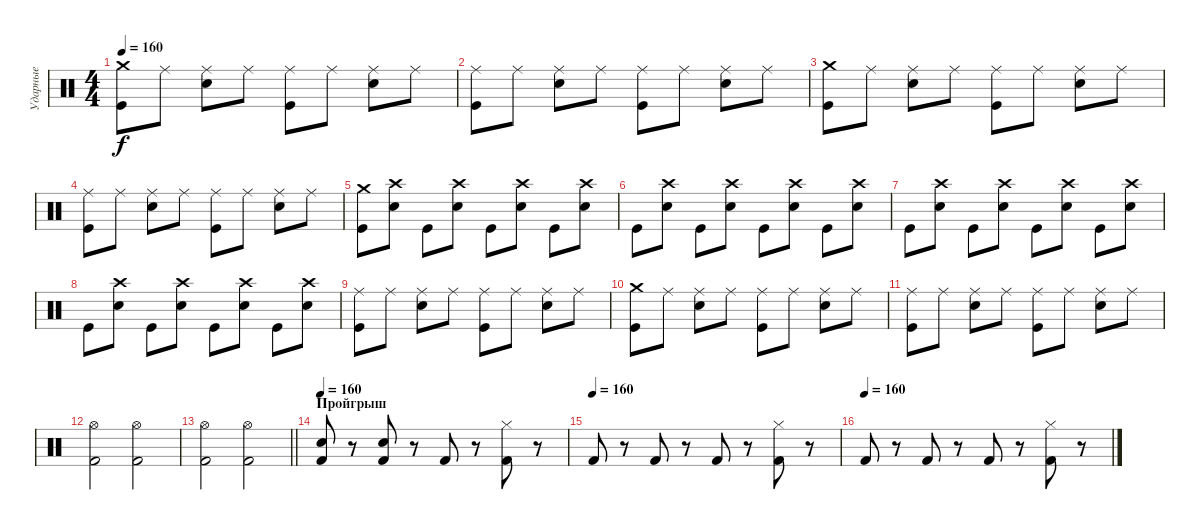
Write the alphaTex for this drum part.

\track ("Ударные" "Ударные") {instrument percussion}
\staff {score}
\articulation defaults
\ts (4 4)
\tempo 160
\clef neutral
\ks c
("Crash medium (hit)" "Kick (hit)").8{dy f} "Ride (middle)".8 ("Ride (middle)" "Electric Snare (hit)").8 "Ride (middle)".8 ("Ride (middle)" "Kick (hit)").8 "Ride (middle)".8 ("Ride (middle)" "Electric Snare (hit)").8 "Ride (middle)".8 |
("Ride (middle)" "Kick (hit)").8 "Ride (middle)".8 ("Ride (middle)" "Electric Snare (hit)").8 "Ride (middle)".8 ("Ride (middle)" "Kick (hit)").8 "Ride (middle)".8 ("Ride (middle)" "Electric Snare (hit)").8 "Ride (middle)".8 |
("Crash medium (hit)" "Kick (hit)").8 "Ride (middle)".8 ("Ride (middle)" "Electric Snare (hit)").8 "Ride (middle)".8 ("Ride (middle)" "Kick (hit)").8 "Ride (middle)".8 ("Ride (middle)" "Electric Snare (hit)").8 "Ride (middle)".8 |
("Ride (middle)" "Kick (hit)").8 "Ride (middle)".8 ("Ride (middle)" "Electric Snare (hit)").8 "Ride (middle)".8 ("Ride (middle)" "Kick (hit)").8 "Ride (middle)".8 ("Ride (middle)" "Electric Snare (hit)").8 "Ride (middle)".8 |
("Crash medium (hit)" "Kick (hit)").8 ("Crash high (hit)" "Snare (hit) 2").8 "Kick (hit)".8 ("Crash high (hit)" "Snare (hit) 2").8 "Kick (hit)".8 ("Crash high (hit)" "Snare (hit) 2").8 "Kick (hit)".8 ("Crash high (hit)" "Snare (hit) 2").8 |
"Kick (hit)".8 ("Crash high (hit)" "Snare (hit) 2").8 "Kick (hit)".8 ("Crash high (hit)" "Snare (hit) 2").8 "Kick (hit)".8 ("Crash high (hit)" "Snare (hit) 2").8 "Kick (hit)".8 ("Crash high (hit)" "Snare (hit) 2").8 |
"Kick (hit)".8 ("Crash high (hit)" "Snare (hit) 2").8 "Kick (hit)".8 ("Crash high (hit)" "Snare (hit) 2").8 "Kick (hit)".8 ("Crash high (hit)" "Snare (hit) 2").8 "Kick (hit)".8 ("Crash high (hit)" "Snare (hit) 2").8 |
"Kick (hit)".8 ("Crash high (hit)" "Snare (hit) 2").8 "Kick (hit)".8 ("Crash high (hit)" "Snare (hit) 2").8 "Kick (hit)".8 ("Crash high (hit)" "Snare (hit) 2").8 "Kick (hit)".8 ("Crash high (hit)" "Snare (hit) 2").8 |
("Ride (middle)" "Kick (hit)").8 "Ride (middle)".8 ("Ride (middle)" "Electric Snare (hit)").8 "Ride (middle)".8 ("Ride (middle)" "Kick (hit)").8 "Ride (middle)".8 ("Ride (middle)" "Electric Snare (hit)").8 "Ride (middle)".8 |
("Crash medium (hit)" "Kick (hit)").8 "Ride (middle)".8 ("Ride (middle)" "Electric Snare (hit)").8 "Ride (middle)".8 ("Ride (middle)" "Kick (hit)").8 "Ride (middle)".8 ("Ride (middle)" "Electric Snare (hit)").8 "Ride (middle)".8 |
("Ride (middle)" "Kick (hit)").8 "Ride (middle)".8 ("Ride (middle)" "Electric Snare (hit)").8 "Ride (middle)".8 ("Ride (middle)" "Kick (hit)").8 "Ride (middle)".8 ("Ride (middle)" "Electric Snare (hit)").8 "Ride (middle)".8 |
("Hi-Hat (open)" "Kick (hit) 2").2 ("Hi-Hat (open)" "Kick (hit) 2").2 |
\barLineRight lightlight
("Hi-Hat (open)" "Kick (hit) 2").2 ("Hi-Hat (open)" "Kick (hit) 2").2 |
\section ("" "Пройгрыш")
\tempo 160
("Kick (hit) 2" "Snare (hit)").8 r.8 ("Kick (hit) 2" "Snare (hit)").8 r.8 "Kick (hit) 2".8 r.8 ("Kick (hit) 2" "Hi-Hat (closed)").8 r.8 |
\tempo (160)
"Kick (hit) 2".8 r.8 "Kick (hit) 2".8 r.8 "Kick (hit) 2".8 r.8 ("Kick (hit) 2" "Hi-Hat (closed)").8 r.8 |
\tempo (160)
"Kick (hit) 2".8 r.8 "Kick (hit) 2".8 r.8 "Kick (hit) 2".8 r.8 ("Kick (hit) 2" "Hi-Hat (closed)").8 r.8
